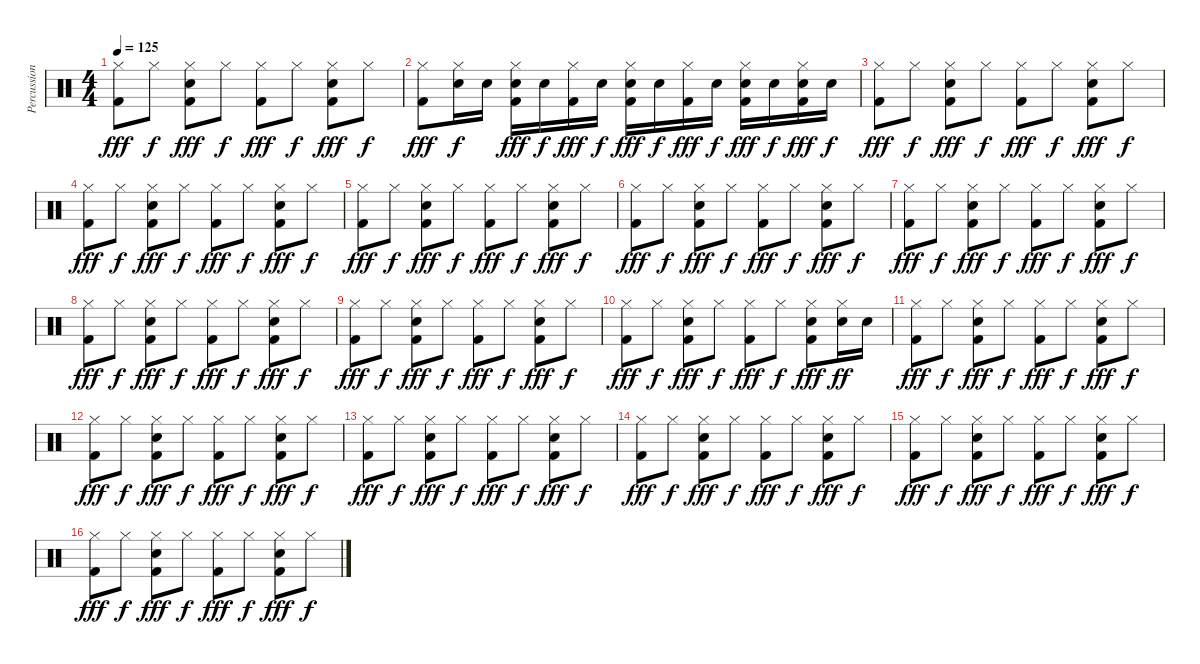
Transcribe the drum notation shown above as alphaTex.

\track ("Percussion" "Percussion") {instrument percussion}
\staff {score}
\articulation defaults
\ts (4 4)
\tempo 125
\clef neutral
\ks c
("Hi-Hat (closed)" "Kick (hit) 2").8{dy fff} "Hi-Hat (closed)".8{dy f} ("Hi-Hat (closed)" "Kick (hit) 2" "Snare (hit) 2").8{dy fff} "Hi-Hat (closed)".8{dy f} ("Hi-Hat (closed)" "Kick (hit) 2").8{dy fff} "Hi-Hat (closed)".8{dy f} ("Hi-Hat (closed)" "Kick (hit) 2" "Snare (hit) 2").8{dy fff} "Hi-Hat (closed)".8{dy f} |
("Hi-Hat (closed)" "Kick (hit) 2").8{dy fff} ("Hi-Hat (closed)" "Snare (hit) 2").16{dy f} "Snare (hit) 2".16 ("Hi-Hat (closed)" "Kick (hit) 2" "Snare (hit) 2").16{dy fff} "Snare (hit) 2".16{dy f} ("Hi-Hat (closed)" "Kick (hit) 2").16{dy fff} "Snare (hit) 2".16{dy f} ("Hi-Hat (closed)" "Kick (hit) 2" "Snare (hit) 2").16{dy fff} "Snare (hit) 2".16{dy f} ("Hi-Hat (closed)" "Kick (hit) 2").16{dy fff} "Snare (hit) 2".16{dy f} ("Hi-Hat (closed)" "Kick (hit) 2" "Snare (hit) 2").16{dy fff} "Snare (hit) 2".16{dy f} ("Hi-Hat (closed)" "Kick (hit) 2" "Snare (hit) 2").16{dy fff} "Snare (hit) 2".16{dy f} |
("Hi-Hat (closed)" "Kick (hit) 2").8{dy fff} "Hi-Hat (closed)".8{dy f} ("Hi-Hat (closed)" "Kick (hit) 2" "Snare (hit) 2").8{dy fff} "Hi-Hat (closed)".8{dy f} ("Hi-Hat (closed)" "Kick (hit) 2").8{dy fff} "Hi-Hat (closed)".8{dy f} ("Hi-Hat (closed)" "Kick (hit) 2" "Snare (hit) 2").8{dy fff} "Hi-Hat (closed)".8{dy f} |
("Hi-Hat (closed)" "Kick (hit) 2").8{dy fff} "Hi-Hat (closed)".8{dy f} ("Hi-Hat (closed)" "Kick (hit) 2" "Snare (hit) 2").8{dy fff} "Hi-Hat (closed)".8{dy f} ("Hi-Hat (closed)" "Kick (hit) 2").8{dy fff} "Hi-Hat (closed)".8{dy f} ("Hi-Hat (closed)" "Kick (hit) 2" "Snare (hit) 2").8{dy fff} "Hi-Hat (closed)".8{dy f} |
("Hi-Hat (closed)" "Kick (hit) 2").8{dy fff} "Hi-Hat (closed)".8{dy f} ("Hi-Hat (closed)" "Kick (hit) 2" "Snare (hit) 2").8{dy fff} "Hi-Hat (closed)".8{dy f} ("Hi-Hat (closed)" "Kick (hit) 2").8{dy fff} "Hi-Hat (closed)".8{dy f} ("Hi-Hat (closed)" "Kick (hit) 2" "Snare (hit) 2").8{dy fff} "Hi-Hat (closed)".8{dy f} |
("Hi-Hat (closed)" "Kick (hit) 2").8{dy fff} "Hi-Hat (closed)".8{dy f} ("Hi-Hat (closed)" "Kick (hit) 2" "Snare (hit) 2").8{dy fff} "Hi-Hat (closed)".8{dy f} ("Hi-Hat (closed)" "Kick (hit) 2").8{dy fff} "Hi-Hat (closed)".8{dy f} ("Hi-Hat (closed)" "Kick (hit) 2" "Snare (hit) 2").8{dy fff} "Hi-Hat (closed)".8{dy f} |
("Hi-Hat (closed)" "Kick (hit) 2").8{dy fff} "Hi-Hat (closed)".8{dy f} ("Hi-Hat (closed)" "Kick (hit) 2" "Snare (hit) 2").8{dy fff} "Hi-Hat (closed)".8{dy f} ("Hi-Hat (closed)" "Kick (hit) 2").8{dy fff} "Hi-Hat (closed)".8{dy f} ("Hi-Hat (closed)" "Kick (hit) 2" "Snare (hit) 2").8{dy fff} "Hi-Hat (closed)".8{dy f} |
("Hi-Hat (closed)" "Kick (hit) 2").8{dy fff} "Hi-Hat (closed)".8{dy f} ("Hi-Hat (closed)" "Kick (hit) 2" "Snare (hit) 2").8{dy fff} "Hi-Hat (closed)".8{dy f} ("Hi-Hat (closed)" "Kick (hit) 2").8{dy fff} "Hi-Hat (closed)".8{dy f} ("Hi-Hat (closed)" "Kick (hit) 2" "Snare (hit) 2").8{dy fff} "Hi-Hat (closed)".8{dy f} |
("Hi-Hat (closed)" "Kick (hit) 2").8{dy fff} "Hi-Hat (closed)".8{dy f} ("Hi-Hat (closed)" "Kick (hit) 2" "Snare (hit) 2").8{dy fff} "Hi-Hat (closed)".8{dy f} ("Hi-Hat (closed)" "Kick (hit) 2").8{dy fff} "Hi-Hat (closed)".8{dy f} ("Hi-Hat (closed)" "Kick (hit) 2" "Snare (hit) 2").8{dy fff} "Hi-Hat (closed)".8{dy f} |
("Hi-Hat (closed)" "Kick (hit) 2").8{dy fff} "Hi-Hat (closed)".8{dy f} ("Hi-Hat (closed)" "Kick (hit) 2" "Snare (hit) 2").8{dy fff} "Hi-Hat (closed)".8{dy f} ("Hi-Hat (closed)" "Kick (hit) 2").8{dy fff} "Hi-Hat (closed)".8{dy f} ("Hi-Hat (closed)" "Kick (hit) 2" "Snare (hit) 2").8{dy fff} ("Hi-Hat (closed)" "Snare (hit) 2").16{dy ff} "Snare (hit) 2".16 |
("Hi-Hat (closed)" "Kick (hit) 2").8{dy fff} "Hi-Hat (closed)".8{dy f} ("Hi-Hat (closed)" "Kick (hit) 2" "Snare (hit) 2").8{dy fff} "Hi-Hat (closed)".8{dy f} ("Hi-Hat (closed)" "Kick (hit) 2").8{dy fff} "Hi-Hat (closed)".8{dy f} ("Hi-Hat (closed)" "Kick (hit) 2" "Snare (hit) 2").8{dy fff} "Hi-Hat (closed)".8{dy f} |
("Hi-Hat (closed)" "Kick (hit) 2").8{dy fff} "Hi-Hat (closed)".8{dy f} ("Hi-Hat (closed)" "Kick (hit) 2" "Snare (hit) 2").8{dy fff} "Hi-Hat (closed)".8{dy f} ("Hi-Hat (closed)" "Kick (hit) 2").8{dy fff} "Hi-Hat (closed)".8{dy f} ("Hi-Hat (closed)" "Kick (hit) 2" "Snare (hit) 2").8{dy fff} "Hi-Hat (closed)".8{dy f} |
("Hi-Hat (closed)" "Kick (hit) 2").8{dy fff} "Hi-Hat (closed)".8{dy f} ("Hi-Hat (closed)" "Kick (hit) 2" "Snare (hit) 2").8{dy fff} "Hi-Hat (closed)".8{dy f} ("Hi-Hat (closed)" "Kick (hit) 2").8{dy fff} "Hi-Hat (closed)".8{dy f} ("Hi-Hat (closed)" "Kick (hit) 2" "Snare (hit) 2").8{dy fff} "Hi-Hat (closed)".8{dy f} |
("Hi-Hat (closed)" "Kick (hit) 2").8{dy fff} "Hi-Hat (closed)".8{dy f} ("Hi-Hat (closed)" "Kick (hit) 2" "Snare (hit) 2").8{dy fff} "Hi-Hat (closed)".8{dy f} ("Hi-Hat (closed)" "Kick (hit) 2").8{dy fff} "Hi-Hat (closed)".8{dy f} ("Hi-Hat (closed)" "Kick (hit) 2" "Snare (hit) 2").8{dy fff} "Hi-Hat (closed)".8{dy f} |
("Hi-Hat (closed)" "Kick (hit) 2").8{dy fff} "Hi-Hat (closed)".8{dy f} ("Hi-Hat (closed)" "Kick (hit) 2" "Snare (hit) 2").8{dy fff} "Hi-Hat (closed)".8{dy f} ("Hi-Hat (closed)" "Kick (hit) 2").8{dy fff} "Hi-Hat (closed)".8{dy f} ("Hi-Hat (closed)" "Kick (hit) 2" "Snare (hit) 2").8{dy fff} "Hi-Hat (closed)".8{dy f} |
("Hi-Hat (closed)" "Kick (hit) 2").8{dy fff} "Hi-Hat (closed)".8{dy f} ("Hi-Hat (closed)" "Kick (hit) 2" "Snare (hit) 2").8{dy fff} "Hi-Hat (closed)".8{dy f} ("Hi-Hat (closed)" "Kick (hit) 2").8{dy fff} "Hi-Hat (closed)".8{dy f} ("Hi-Hat (closed)" "Kick (hit) 2" "Snare (hit) 2").8{dy fff} "Hi-Hat (closed)".8{dy f}
